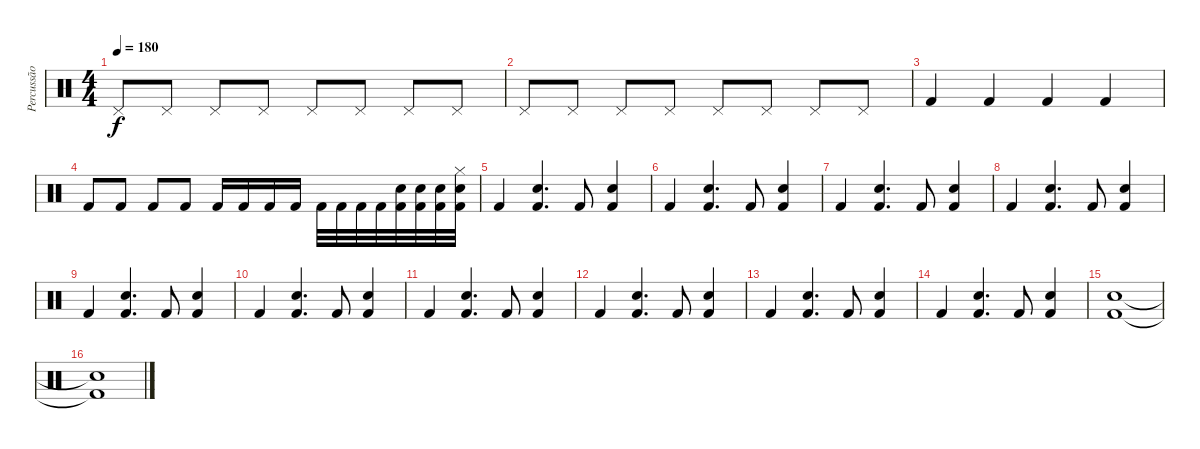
\track ("Percussão" "Percussão") {instrument percussion}
\staff {score}
\articulation defaults
\ts (4 4)
\tempo 180
\clef neutral
\ks c "Pedal Hi-Hat (hit)".8{dy f} "Pedal Hi-Hat (hit)".8 "Pedal Hi-Hat (hit)".8 "Pedal Hi-Hat (hit)".8 "Pedal Hi-Hat (hit)".8 "Pedal Hi-Hat (hit)".8 "Pedal Hi-Hat (hit)".8 "Pedal Hi-Hat (hit)".8
|
"Pedal Hi-Hat (hit)".8 "Pedal Hi-Hat (hit)".8 "Pedal Hi-Hat (hit)".8 "Pedal Hi-Hat (hit)".8 "Pedal Hi-Hat (hit)".8 "Pedal Hi-Hat (hit)".8 "Pedal Hi-Hat (hit)".8 "Pedal Hi-Hat (hit)".8 |
"Kick (hit) 2".4 "Kick (hit) 2".4 "Kick (hit) 2".4 "Kick (hit) 2".4 |
"Kick (hit) 2".8 "Kick (hit) 2".8 "Kick (hit) 2".8 "Kick (hit) 2".8 "Kick (hit) 2".16 "Kick (hit) 2".16 "Kick (hit) 2".16 "Kick (hit) 2".16 "Kick (hit) 2".32 "Kick (hit) 2".32 "Kick (hit) 2".32 "Kick (hit) 2".32 ("Kick (hit) 2" "Snare (hit) 2").32 ("Kick (hit) 2" "Snare (hit) 2").32 ("Kick (hit) 2" "Snare (hit) 2").32 ("Kick (hit) 2" "Snare (hit) 2" "Hi-Hat (closed)").32 |
"Kick (hit) 2".4 ("Kick (hit) 2" "Snare (hit) 2").4{d} "Kick (hit) 2".8 ("Kick (hit) 2" "Snare (hit) 2").4 |
"Kick (hit) 2".4 ("Kick (hit) 2" "Snare (hit) 2").4{d} "Kick (hit) 2".8 ("Kick (hit) 2" "Snare (hit) 2").4 |
"Kick (hit) 2".4 ("Kick (hit) 2" "Snare (hit) 2").4{d} "Kick (hit) 2".8 ("Kick (hit) 2" "Snare (hit) 2").4 |
"Kick (hit) 2".4 ("Kick (hit) 2" "Snare (hit) 2").4{d} "Kick (hit) 2".8 ("Kick (hit) 2" "Snare (hit) 2").4 |
"Kick (hit) 2".4 ("Kick (hit) 2" "Snare (hit) 2").4{d} "Kick (hit) 2".8 ("Kick (hit) 2" "Snare (hit) 2").4 |
"Kick (hit) 2".4 ("Kick (hit) 2" "Snare (hit) 2").4{d} "Kick (hit) 2".8 ("Kick (hit) 2" "Snare (hit) 2").4 |
"Kick (hit) 2".4 ("Kick (hit) 2" "Snare (hit) 2").4{d} "Kick (hit) 2".8 ("Kick (hit) 2" "Snare (hit) 2").4 |
"Kick (hit) 2".4 ("Kick (hit) 2" "Snare (hit) 2").4{d} "Kick (hit) 2".8 ("Kick (hit) 2" "Snare (hit) 2").4 |
"Kick (hit) 2".4 ("Kick (hit) 2" "Snare (hit) 2").4{d} "Kick (hit) 2".8 ("Kick (hit) 2" "Snare (hit) 2").4 |
"Kick (hit) 2".4 ("Kick (hit) 2" "Snare (hit) 2").4{d} "Kick (hit) 2".8 ("Kick (hit) 2" "Snare (hit) 2").4 |
("Kick (hit) 2" "Snare (hit) 2").1 |
("Kick (hit) 2"{t} "Snare (hit) 2"{t}).1
